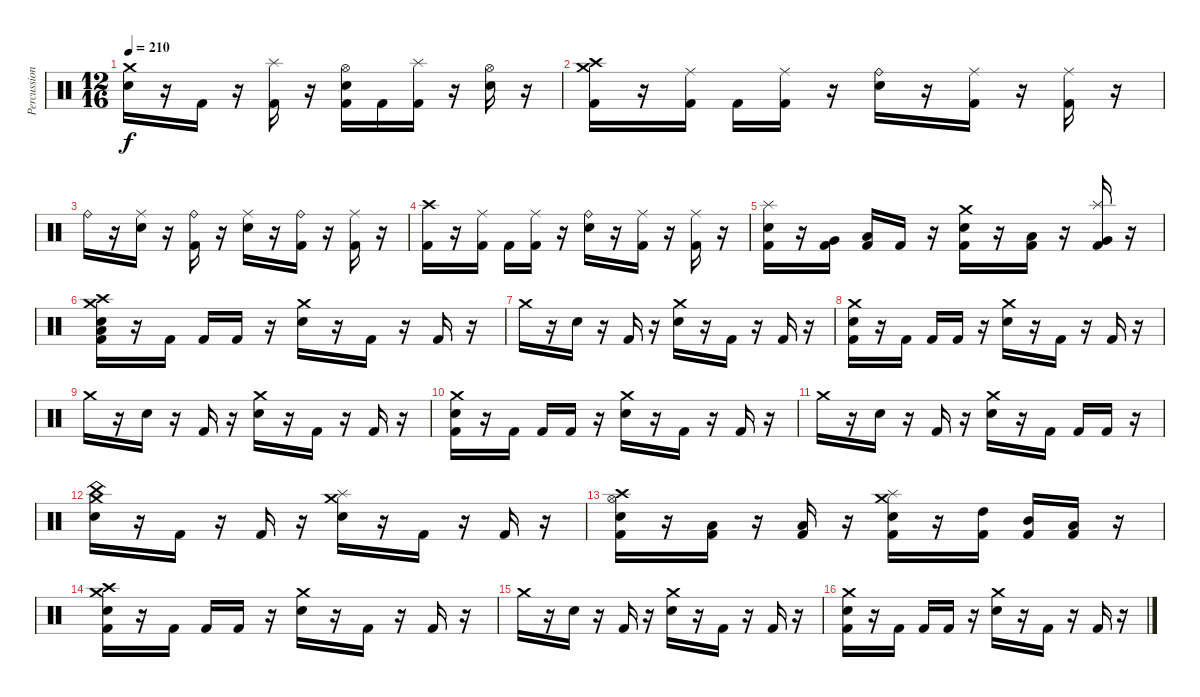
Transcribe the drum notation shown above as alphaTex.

\track ("Percussion" "Percussion") {instrument percussion}
\staff {score}
\articulation defaults
\ts (12 16)
\tempo 210
\clef neutral
\ks c
("Crash medium (hit)" "Electric Snare (hit)").16{dy f} r.16 "Kick (hit) 2".16 r.16 ("Splash (hit)" "Kick (hit) 2").16 r.16 ("Hi-Hat (open)" "Electric Snare (hit)" "Kick (hit) 2").16 "Kick (hit) 2".16 ("Splash (hit)" "Kick (hit) 2").16 r.16 ("Hi-Hat (open)" "Electric Snare (hit)").16 r.16 |
("Crash high (hit)" "Crash medium (hit)" "Kick (hit) 2").16 r.16 ("Ride (middle)" "Kick (hit) 2").16 "Kick (hit) 2".16 ("Ride (middle)" "Kick (hit) 2").16 r.16 ("Ride (bell)" "Electric Snare (hit)").16 r.16 ("Ride (middle)" "Kick (hit) 2").16 r.16 ("Ride (middle)" "Kick (hit) 2").16 r.16 |
"Ride (bell)".16 r.16 ("Ride (middle)" "Electric Snare (hit)").16 r.16 ("Ride (bell)" "Kick (hit) 2").16 r.16 ("Ride (middle)" "Electric Snare (hit)").16 r.16 ("Ride (bell)" "Kick (hit) 2").16 r.16 ("Ride (middle)" "Kick (hit) 2").16 r.16 |
("Crash high (hit)" "Kick (hit) 2").16 r.16 ("Ride (middle)" "Kick (hit) 2").16 "Kick (hit) 2".16 ("Ride (middle)" "Kick (hit) 2").16 r.16 ("Ride (bell)" "Electric Snare (hit)").16 r.16 ("Ride (middle)" "Kick (hit) 2").16 r.16 ("Ride (middle)" "Kick (hit) 2").16 r.16 |
("Splash (hit)" "Electric Snare (hit)" "Kick (hit) 2").16 r.16 ("Very Low Tom (hit)" "Kick (hit) 2").16 ("Low Floor Tom (hit)" "Kick (hit) 2").16 "Kick (hit) 2".16 r.16 ("Crash medium (hit)" "Electric Snare (hit)" "Kick (hit) 2").16 r.16 ("Low Tom (hit)" "Kick (hit) 2").16 r.16 ("Splash (hit)" "Very Low Tom (hit)" "Kick (hit) 2").16 r.16 |
("Crash high (hit)" "Crash medium (hit)" "Electric Snare (hit)" "Low Floor Tom (hit)" "Kick (hit) 2").16 r.16 "Kick (hit) 2".16 "Kick (hit) 2".16 "Kick (hit) 2".16 r.16 ("Crash medium (hit)" "Electric Snare (hit)").16 r.16 "Kick (hit) 2".16 r.16 "Kick (hit) 2".16 r.16 |
"Crash medium (hit)".16 r.16 "Electric Snare (hit)".16 r.16 "Kick (hit) 2".16 r.16 ("Crash medium (hit)" "Electric Snare (hit)").16 r.16 "Kick (hit) 2".16 r.16 "Kick (hit) 2".16 r.16 |
("Crash medium (hit)" "Electric Snare (hit)" "Kick (hit) 2").16 r.16 "Kick (hit) 2".16 "Kick (hit) 2".16 "Kick (hit) 2".16 r.16 ("Crash medium (hit)" "Electric Snare (hit)").16 r.16 "Kick (hit) 2".16 r.16 "Kick (hit) 2".16 r.16 |
"Crash medium (hit)".16 r.16 "Electric Snare (hit)".16 r.16 "Kick (hit) 2".16 r.16 ("Crash medium (hit)" "Electric Snare (hit)").16 r.16 "Kick (hit) 2".16 r.16 "Kick (hit) 2".16 r.16 |
("Crash medium (hit)" "Electric Snare (hit)" "Kick (hit) 2").16 r.16 "Kick (hit) 2".16 "Kick (hit) 2".16 "Kick (hit) 2".16 r.16 ("Crash medium (hit)" "Electric Snare (hit)").16 r.16 "Kick (hit) 2".16 r.16 "Kick (hit) 2".16 r.16 |
"Crash medium (hit)".16 r.16 "Electric Snare (hit)".16 r.16 "Kick (hit) 2".16 r.16 ("Crash medium (hit)" "Electric Snare (hit)").16 r.16 "Kick (hit) 2".16 "Kick (hit) 2".16 "Kick (hit) 2".16 r.16 |
("Crash medium (hit)" "China (hit)" "Electric Snare (hit)").16 r.16 "Kick (hit) 2".16 r.16 "Kick (hit) 2".16 r.16 ("Crash medium (hit)" "Splash (hit)" "Electric Snare (hit)").16 r.16 "Kick (hit) 2".16 r.16 "Kick (hit) 2".16 r.16 |
("Crash high (hit)" "Hi-Hat (open)" "Electric Snare (hit)" "Kick (hit) 2").16 r.16 ("Low Tom (hit)" "Kick (hit) 2").16 r.16 ("Low Floor Tom (hit)" "Kick (hit) 2").16 r.16 ("Crash medium (hit)" "Splash (hit)" "Electric Snare (hit)" "Kick (hit) 2").16 r.16 ("High Tom (hit)" "Kick (hit) 2").16 ("Mid Tom (hit)" "Kick (hit) 2").16 ("Low Tom (hit)" "Kick (hit) 2").16 r.16 |
("Crash high (hit)" "Crash medium (hit)" "Electric Snare (hit)" "Kick (hit) 2").16 r.16 "Kick (hit) 2".16 "Kick (hit) 2".16 "Kick (hit) 2".16 r.16 ("Crash medium (hit)" "Electric Snare (hit)").16 r.16 "Kick (hit) 2".16 r.16 "Kick (hit) 2".16 r.16 |
"Crash medium (hit)".16 r.16 "Electric Snare (hit)".16 r.16 "Kick (hit) 2".16 r.16 ("Crash medium (hit)" "Electric Snare (hit)").16 r.16 "Kick (hit) 2".16 r.16 "Kick (hit) 2".16 r.16 |
("Crash medium (hit)" "Electric Snare (hit)" "Kick (hit) 2").16 r.16 "Kick (hit) 2".16 "Kick (hit) 2".16 "Kick (hit) 2".16 r.16 ("Crash medium (hit)" "Electric Snare (hit)").16 r.16 "Kick (hit) 2".16 r.16 "Kick (hit) 2".16 r.16
